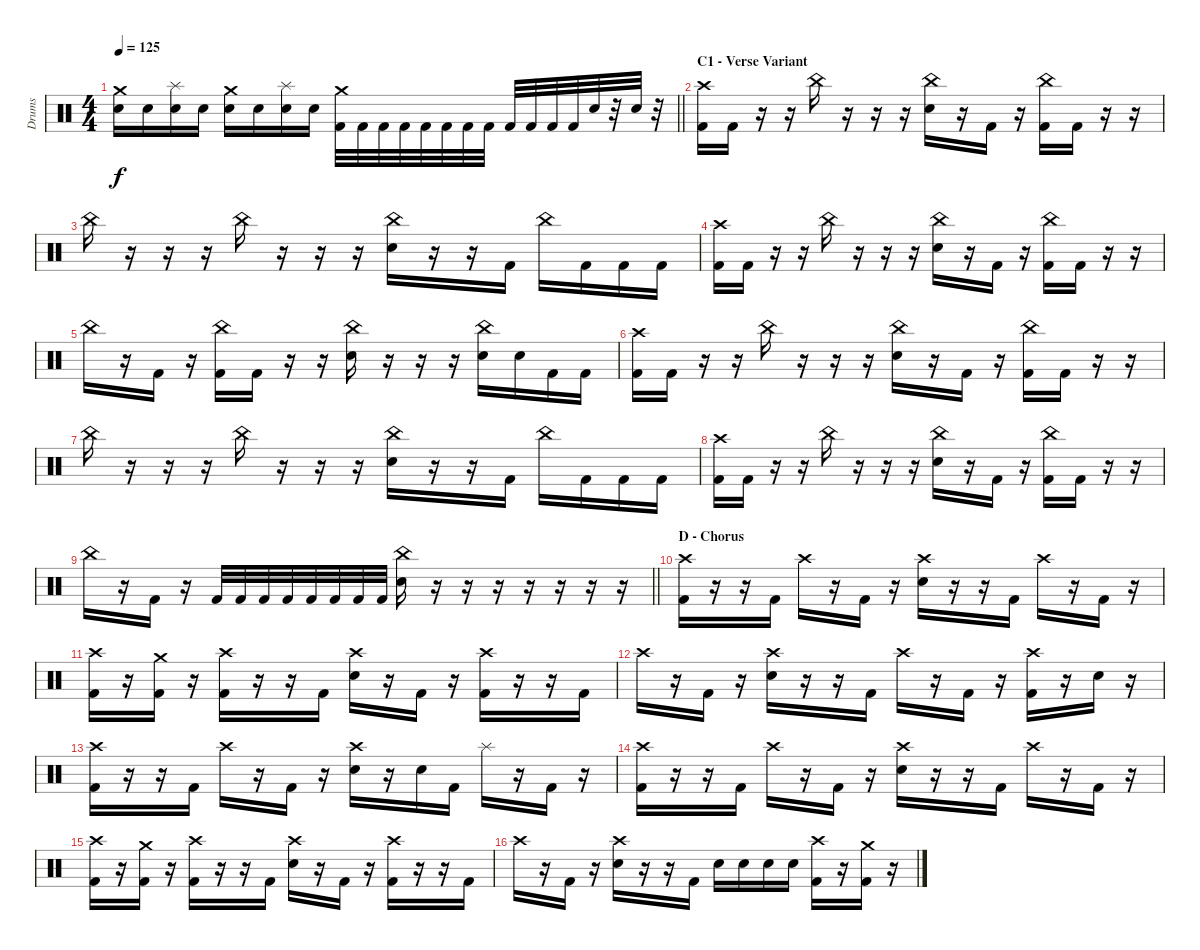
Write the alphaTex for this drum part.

\track ("Drums" "Drums") {instrument percussion}
\staff {score}
\articulation defaults
\ts (4 4)
\tempo 125
\clef neutral
\barLineRight lightlight
\ks c
("Crash medium (hit)" "Electric Snare (hit)").16{dy f} "Electric Snare (hit)".16 ("Splash (hit)" "Electric Snare (hit)").16 "Electric Snare (hit)".16 ("Crash medium (hit)" "Electric Snare (hit)").16 "Electric Snare (hit)".16 ("Splash (hit)" "Electric Snare (hit)").16 "Electric Snare (hit)".16 ("Crash medium (hit)" "Kick (hit) 2").32 "Kick (hit) 2".32 "Kick (hit) 2".32 "Kick (hit) 2".32 "Kick (hit) 2".32 "Kick (hit) 2".32 "Kick (hit) 2".32 "Kick (hit) 2".32 "Kick (hit) 2".32 "Kick (hit) 2".32 "Kick (hit) 2".32 "Kick (hit) 2".32 "Electric Snare (hit)".32 r.32 "Electric Snare (hit)".32 r.32 |
\section ("" "C1 - Verse Variant")
("Crash high (hit)" "Kick (hit) 2").16 "Kick (hit) 2".16 r.16 r.16 "China (hit)".16 r.16 r.16 r.16 ("China (hit)" "Electric Snare (hit)").16 r.16 "Kick (hit) 2".16 r.16 ("China (hit)" "Kick (hit) 2").16 "Kick (hit) 2".16 r.16 r.16 |
"China (hit)".16 r.16 r.16 r.16 "China (hit)".16 r.16 r.16 r.16 ("China (hit)" "Electric Snare (hit)").16 r.16 r.16 "Kick (hit) 2".16 "China (hit)".16 "Kick (hit) 2".16 "Kick (hit) 2".16 "Kick (hit) 2".16 |
("Crash high (hit)" "Kick (hit) 2").16 "Kick (hit) 2".16 r.16 r.16 "China (hit)".16 r.16 r.16 r.16 ("China (hit)" "Electric Snare (hit)").16 r.16 "Kick (hit) 2".16 r.16 ("China (hit)" "Kick (hit) 2").16 "Kick (hit) 2".16 r.16 r.16 |
"China (hit)".16 r.16 "Kick (hit) 2".16 r.16 ("China (hit)" "Kick (hit) 2").16 "Kick (hit) 2".16 r.16 r.16 ("China (hit)" "Electric Snare (hit)").16 r.16 r.16 r.16 ("China (hit)" "Electric Snare (hit)").16 "Electric Snare (hit)".16 "Kick (hit) 2".16 "Kick (hit) 2".16 |
("Crash high (hit)" "Kick (hit) 2").16 "Kick (hit) 2".16 r.16 r.16 "China (hit)".16 r.16 r.16 r.16 ("China (hit)" "Electric Snare (hit)").16 r.16 "Kick (hit) 2".16 r.16 ("China (hit)" "Kick (hit) 2").16 "Kick (hit) 2".16 r.16 r.16 |
"China (hit)".16 r.16 r.16 r.16 "China (hit)".16 r.16 r.16 r.16 ("China (hit)" "Electric Snare (hit)").16 r.16 r.16 "Kick (hit) 2".16 "China (hit)".16 "Kick (hit) 2".16 "Kick (hit) 2".16 "Kick (hit) 2".16 |
("Crash high (hit)" "Kick (hit) 2").16 "Kick (hit) 2".16 r.16 r.16 "China (hit)".16 r.16 r.16 r.16 ("China (hit)" "Electric Snare (hit)").16 r.16 "Kick (hit) 2".16 r.16 ("China (hit)" "Kick (hit) 2").16 "Kick (hit) 2".16 r.16 r.16 |
\barLineRight lightlight "China (hit)".16
r.16 "Kick (hit) 2".16 r.16 "Kick (hit) 2".32 "Kick (hit) 2".32 "Kick (hit) 2".32 "Kick (hit) 2".32 "Kick (hit) 2".32 "Kick (hit) 2".32 "Kick (hit) 2".32 "Kick (hit) 2".32 ("China (hit)" "Electric Snare (hit)").16 r.16 r.16 r.16 r.16 r.16 r.16 r.16 |
\section ("" "D - Chorus")
("Crash high (hit)" "Kick (hit) 2").16 r.16 r.16 "Kick (hit) 2".16 "Crash high (hit)".16 r.16 "Kick (hit) 2".16 r.16 ("Crash high (hit)" "Electric Snare (hit)").16 r.16 r.16 "Kick (hit) 2".16 "Crash high (hit)".16 r.16 "Kick (hit) 2".16 r.16 |
("Crash high (hit)" "Kick (hit) 2").16 r.16 ("Crash medium (hit)" "Kick (hit) 2").16 r.16 ("Crash high (hit)" "Kick (hit) 2").16 r.16 r.16 "Kick (hit) 2".16 ("Crash high (hit)" "Electric Snare (hit)").16 r.16 "Kick (hit) 2".16 r.16 ("Crash high (hit)" "Kick (hit) 2").16 r.16 r.16 "Kick (hit) 2".16 |
"Crash high (hit)".16 r.16 "Kick (hit) 2".16 r.16 ("Crash high (hit)" "Electric Snare (hit)").16 r.16 r.16 "Kick (hit) 2".16 "Crash high (hit)".16 r.16 "Kick (hit) 2".16 r.16 ("Crash high (hit)" "Kick (hit) 2").16 r.16 "Electric Snare (hit)".16 r.16 |
("Crash high (hit)" "Kick (hit) 2").16 r.16 r.16 "Kick (hit) 2".16 "Crash high (hit)".16 r.16 "Kick (hit) 2".16 r.16 ("Crash high (hit)" "Electric Snare (hit)").16 r.16 "Electric Snare (hit)".16 "Kick (hit) 2".16 "Splash (hit)".16 r.16 "Kick (hit) 2".16 r.16 |
("Crash high (hit)" "Kick (hit) 2").16 r.16 r.16 "Kick (hit) 2".16 "Crash high (hit)".16 r.16 "Kick (hit) 2".16 r.16 ("Crash high (hit)" "Electric Snare (hit)").16 r.16 r.16 "Kick (hit) 2".16 "Crash high (hit)".16 r.16 "Kick (hit) 2".16 r.16 |
("Crash high (hit)" "Kick (hit) 2").16 r.16 ("Crash medium (hit)" "Kick (hit) 2").16 r.16 ("Crash high (hit)" "Kick (hit) 2").16 r.16 r.16 "Kick (hit) 2".16 ("Crash high (hit)" "Electric Snare (hit)").16 r.16 "Kick (hit) 2".16 r.16 ("Crash high (hit)" "Kick (hit) 2").16 r.16 r.16 "Kick (hit) 2".16 |
"Crash high (hit)".16 r.16 "Kick (hit) 2".16 r.16 ("Crash high (hit)" "Electric Snare (hit)").16 r.16 r.16 "Kick (hit) 2".16 "Electric Snare (hit)".16 "Electric Snare (hit)".16 "Electric Snare (hit)".16 "Electric Snare (hit)".16 ("Crash high (hit)" "Kick (hit) 2").16 r.16 ("Crash medium (hit)" "Kick (hit) 2").16 r.16
